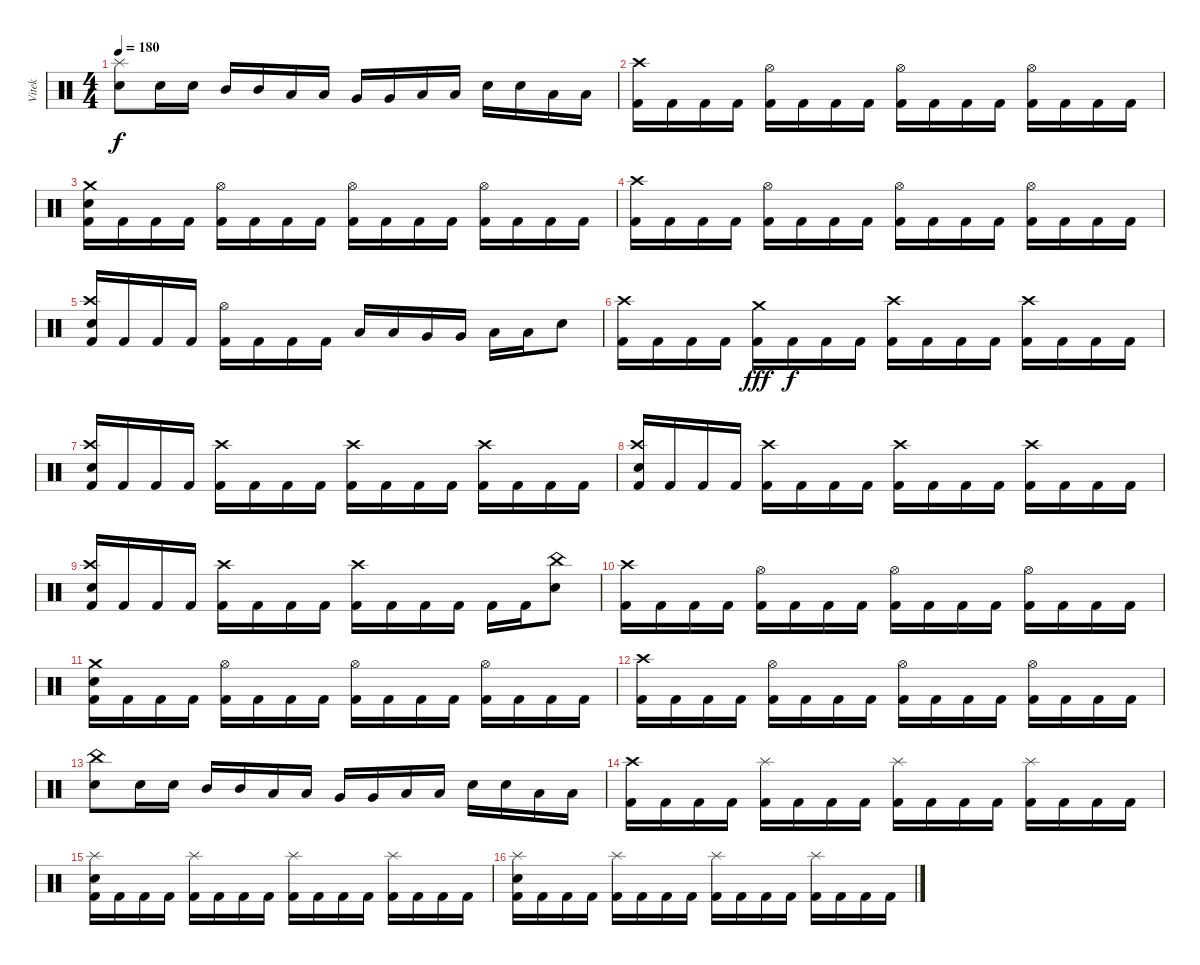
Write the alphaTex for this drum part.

\track ("Vitek" "Vitek") {instrument percussion}
\staff {score}
\articulation defaults
\ts (4 4)
\tempo 180
\clef neutral
\ks c
("Splash (hit)" "Electric Snare (hit)").8{dy f} "Electric Snare (hit)".16 "Electric Snare (hit)".16 "Mid Tom (hit)".16 "Mid Tom (hit)".16 "Low Tom (hit)".16 "Low Tom (hit)".16 "Very Low Tom (hit)".16 "Very Low Tom (hit)".16 "Low Floor Tom (hit)".16 "Low Floor Tom (hit)".16 "Electric Snare (hit)".16 "Electric Snare (hit)".16 "Low Floor Tom (hit)".16 "Low Floor Tom (hit)".16 |
("Crash high (hit)" "Kick (hit) 2").16 "Kick (hit) 2".16 "Kick (hit) 2".16 "Kick (hit) 2".16 ("Hi-Hat (open)" "Kick (hit) 2").16 "Kick (hit) 2".16 "Kick (hit) 2".16 "Kick (hit) 2".16 ("Hi-Hat (open)" "Kick (hit) 2").16 "Kick (hit) 2".16 "Kick (hit) 2".16 "Kick (hit) 2".16 ("Hi-Hat (open)" "Kick (hit) 2").16 "Kick (hit) 2".16 "Kick (hit) 2".16 "Kick (hit) 2".16 |
("Crash medium (hit)" "Electric Snare (hit)" "Kick (hit) 2").16 "Kick (hit) 2".16 "Kick (hit) 2".16 "Kick (hit) 2".16 ("Hi-Hat (open)" "Kick (hit) 2").16 "Kick (hit) 2".16 "Kick (hit) 2".16 "Kick (hit) 2".16 ("Hi-Hat (open)" "Kick (hit) 2").16 "Kick (hit) 2".16 "Kick (hit) 2".16 "Kick (hit) 2".16 ("Hi-Hat (open)" "Kick (hit) 2").16 "Kick (hit) 2".16 "Kick (hit) 2".16 "Kick (hit) 2".16 |
("Crash high (hit)" "Kick (hit) 2").16 "Kick (hit) 2".16 "Kick (hit) 2".16 "Kick (hit) 2".16 ("Hi-Hat (open)" "Kick (hit) 2").16 "Kick (hit) 2".16 "Kick (hit) 2".16 "Kick (hit) 2".16 ("Hi-Hat (open)" "Kick (hit) 2").16 "Kick (hit) 2".16 "Kick (hit) 2".16 "Kick (hit) 2".16 ("Hi-Hat (open)" "Kick (hit) 2").16 "Kick (hit) 2".16 "Kick (hit) 2".16 "Kick (hit) 2".16 |
("Crash high (hit)" "Electric Snare (hit)" "Kick (hit) 2").16 "Kick (hit) 2".16 "Kick (hit) 2".16 "Kick (hit) 2".16 ("Hi-Hat (open)" "Kick (hit) 2").16 "Kick (hit) 2".16 "Kick (hit) 2".16 "Kick (hit) 2".16 "Low Tom (hit)".16 "Low Tom (hit)".16 "Very Low Tom (hit)".16 "Very Low Tom (hit)".16 "Low Floor Tom (hit)".16 "Low Floor Tom (hit)".16 "Electric Snare (hit)".8 |
("Crash high (hit)" "Kick (hit) 2").16 "Kick (hit) 2".16 "Kick (hit) 2".16 "Kick (hit) 2".16 ("Crash medium (hit)" "Kick (hit) 2").16{dy fff} "Kick (hit) 2".16{dy f} "Kick (hit) 2".16 "Kick (hit) 2".16 ("Crash high (hit)" "Kick (hit) 2").16 "Kick (hit) 2".16 "Kick (hit) 2".16 "Kick (hit) 2".16 ("Crash high (hit)" "Kick (hit) 2").16 "Kick (hit) 2".16 "Kick (hit) 2".16 "Kick (hit) 2".16 |
("Crash high (hit)" "Electric Snare (hit)" "Kick (hit) 2").16 "Kick (hit) 2".16 "Kick (hit) 2".16 "Kick (hit) 2".16 ("Crash high (hit)" "Kick (hit) 2").16 "Kick (hit) 2".16 "Kick (hit) 2".16 "Kick (hit) 2".16 ("Crash high (hit)" "Kick (hit) 2").16 "Kick (hit) 2".16 "Kick (hit) 2".16 "Kick (hit) 2".16 ("Crash high (hit)" "Kick (hit) 2").16 "Kick (hit) 2".16 "Kick (hit) 2".16 "Kick (hit) 2".16 |
("Crash high (hit)" "Electric Snare (hit)" "Kick (hit) 2").16 "Kick (hit) 2".16 "Kick (hit) 2".16 "Kick (hit) 2".16 ("Crash high (hit)" "Kick (hit) 2").16 "Kick (hit) 2".16 "Kick (hit) 2".16 "Kick (hit) 2".16 ("Crash high (hit)" "Kick (hit) 2").16 "Kick (hit) 2".16 "Kick (hit) 2".16 "Kick (hit) 2".16 ("Crash high (hit)" "Kick (hit) 2").16 "Kick (hit) 2".16 "Kick (hit) 2".16 "Kick (hit) 2".16 |
("Crash high (hit)" "Electric Snare (hit)" "Kick (hit) 2").16 "Kick (hit) 2".16 "Kick (hit) 2".16 "Kick (hit) 2".16 ("Crash high (hit)" "Kick (hit) 2").16 "Kick (hit) 2".16 "Kick (hit) 2".16 "Kick (hit) 2".16 ("Crash high (hit)" "Kick (hit) 2").16 "Kick (hit) 2".16 "Kick (hit) 2".16 "Kick (hit) 2".16 "Kick (hit) 2".16 "Kick (hit) 2".16 ("China (hit)" "Electric Snare (hit)").8 |
("Crash high (hit)" "Kick (hit) 2").16 "Kick (hit) 2".16 "Kick (hit) 2".16 "Kick (hit) 2".16 ("Hi-Hat (open)" "Kick (hit) 2").16 "Kick (hit) 2".16 "Kick (hit) 2".16 "Kick (hit) 2".16 ("Hi-Hat (open)" "Kick (hit) 2").16 "Kick (hit) 2".16 "Kick (hit) 2".16 "Kick (hit) 2".16 ("Hi-Hat (open)" "Kick (hit) 2").16 "Kick (hit) 2".16 "Kick (hit) 2".16 "Kick (hit) 2".16 |
("Crash medium (hit)" "Electric Snare (hit)" "Kick (hit) 2").16 "Kick (hit) 2".16 "Kick (hit) 2".16 "Kick (hit) 2".16 ("Hi-Hat (open)" "Kick (hit) 2").16 "Kick (hit) 2".16 "Kick (hit) 2".16 "Kick (hit) 2".16 ("Hi-Hat (open)" "Kick (hit) 2").16 "Kick (hit) 2".16 "Kick (hit) 2".16 "Kick (hit) 2".16 ("Hi-Hat (open)" "Kick (hit) 2").16 "Kick (hit) 2".16 "Kick (hit) 2".16 "Kick (hit) 2".16 |
("Crash high (hit)" "Kick (hit) 2").16 "Kick (hit) 2".16 "Kick (hit) 2".16 "Kick (hit) 2".16 ("Hi-Hat (open)" "Kick (hit) 2").16 "Kick (hit) 2".16 "Kick (hit) 2".16 "Kick (hit) 2".16 ("Hi-Hat (open)" "Kick (hit) 2").16 "Kick (hit) 2".16 "Kick (hit) 2".16 "Kick (hit) 2".16 ("Hi-Hat (open)" "Kick (hit) 2").16 "Kick (hit) 2".16 "Kick (hit) 2".16 "Kick (hit) 2".16 |
("China (hit)" "Electric Snare (hit)").8 "Electric Snare (hit)".16 "Electric Snare (hit)".16 "Mid Tom (hit)".16 "Mid Tom (hit)".16 "Low Tom (hit)".16 "Low Tom (hit)".16 "Very Low Tom (hit)".16 "Very Low Tom (hit)".16 "Low Floor Tom (hit)".16 "Low Floor Tom (hit)".16 "Electric Snare (hit)".16 "Electric Snare (hit)".16 "Low Floor Tom (hit)".16 "Low Floor Tom (hit)".16 |
("Crash high (hit)" "Kick (hit) 2").16 "Kick (hit) 2".16 "Kick (hit) 2".16 "Kick (hit) 2".16 ("Splash (hit)" "Kick (hit) 2").16 "Kick (hit) 2".16 "Kick (hit) 2".16 "Kick (hit) 2".16 ("Splash (hit)" "Kick (hit) 2").16 "Kick (hit) 2".16 "Kick (hit) 2".16 "Kick (hit) 2".16 ("Splash (hit)" "Kick (hit) 2").16 "Kick (hit) 2".16 "Kick (hit) 2".16 "Kick (hit) 2".16 |
("Splash (hit)" "Electric Snare (hit)" "Kick (hit) 2").16 "Kick (hit) 2".16 "Kick (hit) 2".16 "Kick (hit) 2".16 ("Splash (hit)" "Kick (hit) 2").16 "Kick (hit) 2".16 "Kick (hit) 2".16 "Kick (hit) 2".16 ("Splash (hit)" "Kick (hit) 2").16 "Kick (hit) 2".16 "Kick (hit) 2".16 "Kick (hit) 2".16 ("Splash (hit)" "Kick (hit) 2").16 "Kick (hit) 2".16 "Kick (hit) 2".16 "Kick (hit) 2".16 |
("Splash (hit)" "Electric Snare (hit)" "Kick (hit) 2").16 "Kick (hit) 2".16 "Kick (hit) 2".16 "Kick (hit) 2".16 ("Splash (hit)" "Kick (hit) 2").16 "Kick (hit) 2".16 "Kick (hit) 2".16 "Kick (hit) 2".16 ("Splash (hit)" "Kick (hit) 2").16 "Kick (hit) 2".16 "Kick (hit) 2".16 "Kick (hit) 2".16 ("Splash (hit)" "Kick (hit) 2").16 "Kick (hit) 2".16 "Kick (hit) 2".16 "Kick (hit) 2".16
